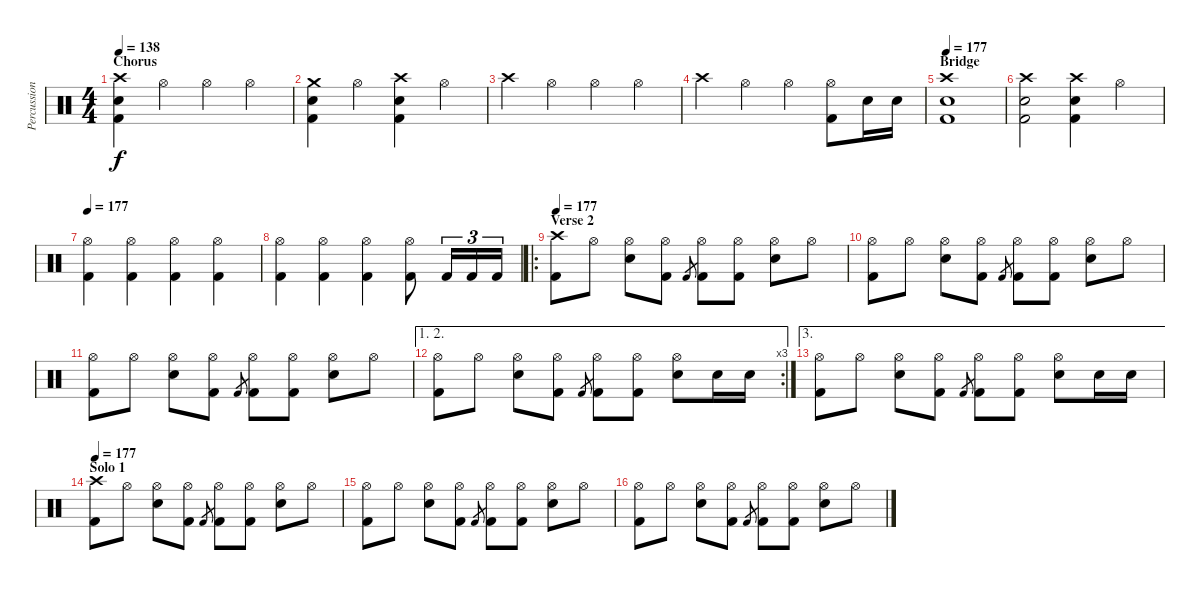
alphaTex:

\track ("Percussion" "Percussion") {instrument percussion}
\staff {score}
\articulation defaults
\ts (4 4)
\section ("" "Chorus")
\tempo 138
\clef neutral
\ks c
("Crash high (hit)" "Electric Snare (hit)" "Kick (hit) 2").4{dy f} "Hi-Hat (open)".4 "Hi-Hat (open)".4 "Hi-Hat (open)".4 |
("Crash medium (hit)" "Electric Snare (hit)" "Kick (hit) 2").4 "Hi-Hat (open)".4 ("Crash high (hit)" "Electric Snare (hit)" "Kick (hit) 2").4 "Hi-Hat (open)".4 |
"Crash high (hit)".4 "Hi-Hat (open)".4 "Hi-Hat (open)".4 "Hi-Hat (open)".4 |
"Crash high (hit)".4 "Hi-Hat (open)".4 "Hi-Hat (open)".4 ("Hi-Hat (open)" "Kick (hit) 2").8 "Electric Snare (hit)".16 "Electric Snare (hit)".16 |
\section ("" "Bridge")
\tempo 177
("Crash high (hit)" "Electric Snare (hit)" "Kick (hit) 2").1 |
("Crash high (hit)" "Electric Snare (hit)" "Kick (hit) 2").2 ("Crash high (hit)" "Electric Snare (hit)" "Kick (hit) 2").4 "Hi-Hat (open)".4 |
\tempo 177
("Hi-Hat (open)" "Kick (hit) 2").4 ("Hi-Hat (open)" "Kick (hit) 2").4 ("Hi-Hat (open)" "Kick (hit) 2").4 ("Hi-Hat (open)" "Kick (hit) 2").4 |
("Hi-Hat (open)" "Kick (hit) 2").4 ("Hi-Hat (open)" "Kick (hit) 2").4 ("Hi-Hat (open)" "Kick (hit) 2").4 ("Hi-Hat (open)" "Kick (hit) 2").8 "Kick (hit) 2".16{tu (3 2)} "Kick (hit) 2".16{tu (3 2)} "Kick (hit) 2".16{tu (3 2)} |
\ro
\section ("" "Verse 2")
\tempo 177
("Crash high (hit)" "Kick (hit) 2").8 "Hi-Hat (open)".8 ("Hi-Hat (open)" "Electric Snare (hit)").8 ("Hi-Hat (open)" "Kick (hit) 2").8 "Kick (hit) 2".8{gr} ("Hi-Hat (open)" "Kick (hit) 2").8 ("Hi-Hat (open)" "Kick (hit) 2").8 ("Hi-Hat (open)" "Electric Snare (hit)").8 "Hi-Hat (open)".8 |
("Hi-Hat (open)" "Kick (hit) 2").8 "Hi-Hat (open)".8 ("Hi-Hat (open)" "Electric Snare (hit)").8 ("Hi-Hat (open)" "Kick (hit) 2").8 "Kick (hit) 2".8{gr} ("Hi-Hat (open)" "Kick (hit) 2").8 ("Hi-Hat (open)" "Kick (hit) 2").8 ("Hi-Hat (open)" "Electric Snare (hit)").8 "Hi-Hat (open)".8 |
("Hi-Hat (open)" "Kick (hit) 2").8 "Hi-Hat (open)".8 ("Hi-Hat (open)" "Electric Snare (hit)").8 ("Hi-Hat (open)" "Kick (hit) 2").8 "Kick (hit) 2".8{gr} ("Hi-Hat (open)" "Kick (hit) 2").8 ("Hi-Hat (open)" "Kick (hit) 2").8 ("Hi-Hat (open)" "Electric Snare (hit)").8 "Hi-Hat (open)".8 |
\ae (1 2)
\rc 3
("Hi-Hat (open)" "Kick (hit) 2").8 "Hi-Hat (open)".8 ("Hi-Hat (open)" "Electric Snare (hit)").8 ("Hi-Hat (open)" "Kick (hit) 2").8 "Kick (hit) 2".8{gr} ("Hi-Hat (open)" "Kick (hit) 2").8 ("Hi-Hat (open)" "Kick (hit) 2").8 ("Hi-Hat (open)" "Electric Snare (hit)").8 "Electric Snare (hit)".16 "Electric Snare (hit)".16 |
\ae 3
("Hi-Hat (open)" "Kick (hit) 2").8 "Hi-Hat (open)".8 ("Hi-Hat (open)" "Electric Snare (hit)").8 ("Hi-Hat (open)" "Kick (hit) 2").8 "Kick (hit) 2".8{gr} ("Hi-Hat (open)" "Kick (hit) 2").8 ("Hi-Hat (open)" "Kick (hit) 2").8 ("Hi-Hat (open)" "Electric Snare (hit)").8 "Electric Snare (hit)".16 "Electric Snare (hit)".16 |
\section ("" "Solo 1")
\tempo 177
("Crash high (hit)" "Kick (hit) 2").8 "Hi-Hat (open)".8 ("Hi-Hat (open)" "Electric Snare (hit)").8 ("Hi-Hat (open)" "Kick (hit) 2").8 "Kick (hit) 2".8{gr} ("Hi-Hat (open)" "Kick (hit) 2").8 ("Hi-Hat (open)" "Kick (hit) 2").8 ("Hi-Hat (open)" "Electric Snare (hit)").8 "Hi-Hat (open)".8 |
("Hi-Hat (open)" "Kick (hit) 2").8 "Hi-Hat (open)".8 ("Hi-Hat (open)" "Electric Snare (hit)").8 ("Hi-Hat (open)" "Kick (hit) 2").8 "Kick (hit) 2".8{gr} ("Hi-Hat (open)" "Kick (hit) 2").8 ("Hi-Hat (open)" "Kick (hit) 2").8 ("Hi-Hat (open)" "Electric Snare (hit)").8 "Hi-Hat (open)".8 |
("Hi-Hat (open)" "Kick (hit) 2").8 "Hi-Hat (open)".8 ("Hi-Hat (open)" "Electric Snare (hit)").8 ("Hi-Hat (open)" "Kick (hit) 2").8 "Kick (hit) 2".8{gr} ("Hi-Hat (open)" "Kick (hit) 2").8 ("Hi-Hat (open)" "Kick (hit) 2").8 ("Hi-Hat (open)" "Electric Snare (hit)").8 "Hi-Hat (open)".8
